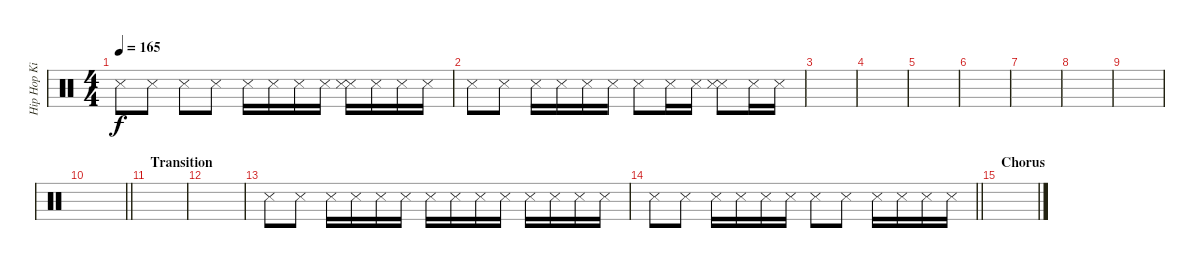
\track ("Hip Hop Kit" "Hip Hop Ki") {instrument percussion}
\staff {score}
\articulation defaults
\ts (4 4)
\tempo 165
\clef neutral
\ks c "Snare (side stick) 3".8{dy f} "Snare (side stick) 3".8 "Snare (side stick) 3".8 "Snare (side stick) 3".8 "Metronome (hit)".16 "Metronome (hit)".16 "Metronome (hit)".16 "Metronome (hit)".16
("Metronome (hit)" "Snare (side stick) 3").16 "Metronome (hit)".16 "Metronome (hit)".16 "Metronome (hit)".16 |
"Snare (side stick) 3".8 "Snare (side stick) 3".8 "Snare (side stick) 3".16 "Snare (side stick) 3".16 "Snare (side stick) 3".16 "Snare (side stick) 3".16 "Metronome (hit)".8 "Metronome (hit)".16 "Metronome (hit)".16 ("Metronome (hit)" "Snare (side stick) 3").8 "Metronome (hit)".16 "Metronome (hit)".16 |
|
|
|
|
|
|
|
\barLineRight lightlight
|
\section ("" "Transition")
|
|
"Metronome (hit)".8 "Metronome (hit)".8 "Snare (side stick) 3".16 "Metronome (hit)".16 "Snare (side stick) 3".16 "Metronome (hit)".16 "Snare (side stick) 3".16 "Metronome (hit)".16 "Snare (side stick) 3".16 "Metronome (hit)".16 "Snare (side stick) 3".16 "Metronome (hit)".16 "Snare (side stick) 3".16 "Metronome (hit)".16 |
\barLineRight lightlight "Metronome (hit)".8 "Metronome (hit)".8 "Snare (side stick) 3".16 "Metronome (hit)".16 "Snare (side stick) 3".16 "Metronome (hit)".16 "Metronome (hit)".8 "Metronome (hit)".8 "Snare (side stick) 3".16 "Metronome (hit)".16 "Snare (side stick) 3".16 "Metronome (hit)".16
|
\section ("" "Chorus")
